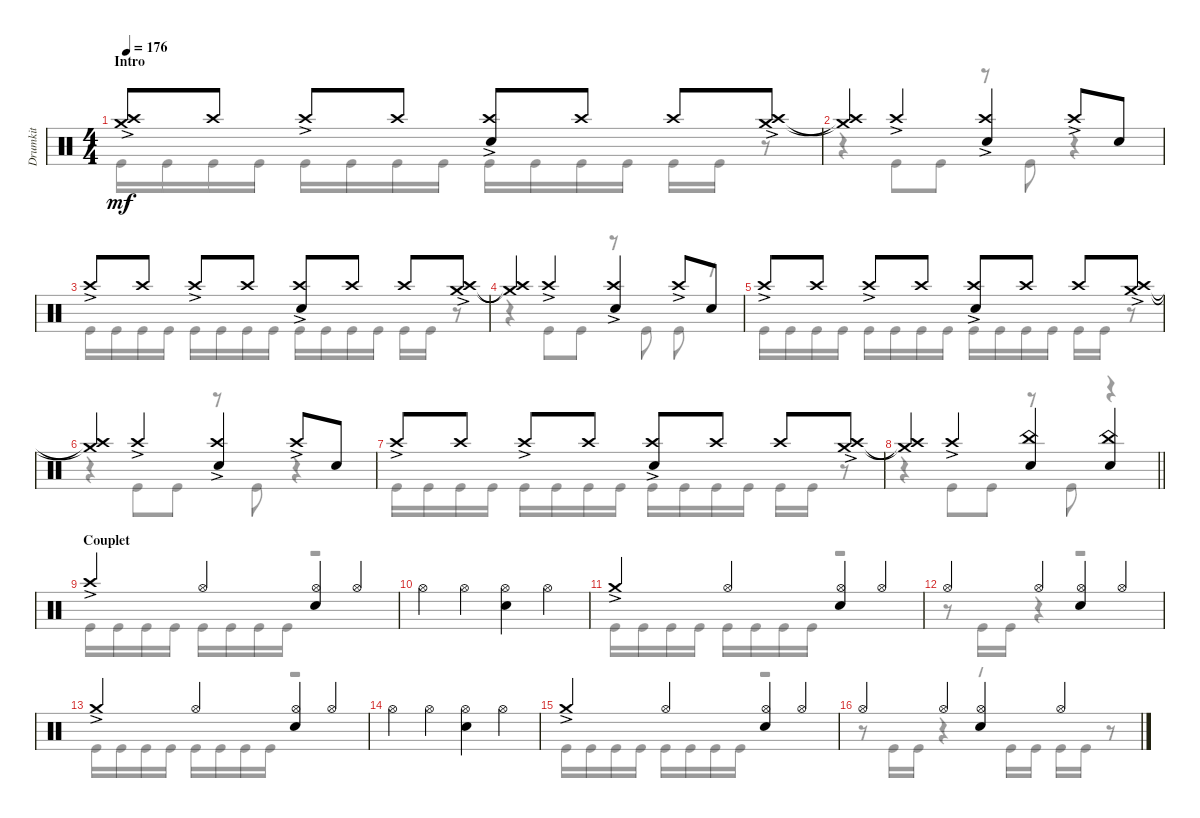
\track ("Drumkit" "Drumkit") {instrument percussion}
\staff {score}
\articulation defaults
\voice
\ts (4 4)
\section ("" "Intro")
\tempo 176
\clef neutral
\ks c
("Crash high (hit)"{ac} "Crash medium (hit)"{ac}).8{dy mf} "Crash high (hit)".8 "Crash high (hit)"{ac}.8 "Crash high (hit)".8 ("Snare (hit) 2" "Crash high (hit)"{ac}).8 "Crash high (hit)".8 "Crash high (hit)".8 ("Crash high (hit)"{ac} "Crash medium (hit)"{ac}).8 |
("Crash medium (hit)"{t} "Crash high (hit)"{t}).4 "Crash high (hit)"{ac}.4 ("Snare (hit) 2" "Crash high (hit)"{ac}).4 "Crash high (hit)"{ac}.8 "Snare (hit) 2".8 |
"Crash high (hit)"{ac}.8 "Crash high (hit)".8 "Crash high (hit)"{ac}.8 "Crash high (hit)".8 ("Snare (hit) 2" "Crash high (hit)"{ac}).8 "Crash high (hit)".8 "Crash high (hit)".8 ("Crash high (hit)"{ac} "Crash medium (hit)"{ac}).8 |
("Crash medium (hit)"{t} "Crash high (hit)"{t}).4 "Crash high (hit)"{ac}.4 ("Snare (hit) 2" "Crash high (hit)"{ac}).4 "Crash high (hit)"{ac}.8 "Snare (hit) 2".8 |
"Crash high (hit)"{ac}.8 "Crash high (hit)".8 "Crash high (hit)"{ac}.8 "Crash high (hit)".8 ("Snare (hit) 2" "Crash high (hit)"{ac}).8 "Crash high (hit)".8 "Crash high (hit)".8 ("Crash high (hit)"{ac} "Crash medium (hit)"{ac}).8 |
("Crash medium (hit)"{t} "Crash high (hit)"{t}).4 "Crash high (hit)"{ac}.4 ("Snare (hit) 2" "Crash high (hit)"{ac}).4 "Crash high (hit)"{ac}.8 "Snare (hit) 2".8 |
"Crash high (hit)"{ac}.8 "Crash high (hit)".8 "Crash high (hit)"{ac}.8 "Crash high (hit)".8 ("Snare (hit) 2" "Crash high (hit)"{ac}).8 "Crash high (hit)".8 "Crash high (hit)".8 ("Crash high (hit)"{ac} "Crash medium (hit)"{ac}).8 |
\barLineRight lightlight
("Crash medium (hit)"{t} "Crash high (hit)"{t}).4 "Crash high (hit)"{ac}.4 ("Snare (hit) 2" "China (hit)").4 ("China (hit)" "Snare (hit) 2").4 |
\section ("" "Couplet")
"Crash high (hit)"{ac}.4 "Hi-Hat (open)".4 ("Hi-Hat (open)" "Snare (hit) 2").4 "Hi-Hat (open)".4 |
"Hi-Hat (open)".4 "Hi-Hat (open)".4 ("Hi-Hat (open)" "Snare (hit) 2").4 "Hi-Hat (open)".4 |
"Crash medium (hit)"{ac}.4 "Hi-Hat (open)".4 ("Hi-Hat (open)" "Snare (hit) 2").4 "Hi-Hat (open)".4 |
"Hi-Hat (open)".4 "Hi-Hat (open)".4 ("Hi-Hat (open)" "Snare (hit) 2").4 "Hi-Hat (open)".4 |
"Crash medium (hit)"{ac}.4 "Hi-Hat (open)".4 ("Hi-Hat (open)" "Snare (hit) 2").4 "Hi-Hat (open)".4 |
"Hi-Hat (open)".4 "Hi-Hat (open)".4 ("Hi-Hat (open)" "Snare (hit) 2").4 "Hi-Hat (open)".4 |
"Crash medium (hit)"{ac}.4 "Hi-Hat (open)".4 ("Hi-Hat (open)" "Snare (hit) 2").4 "Hi-Hat (open)".4 |
"Hi-Hat (open)".4 "Hi-Hat (open)".4 ("Hi-Hat (open)" "Snare (hit) 2").4 "Hi-Hat (open)".4
\voice
\clef neutral
\ottava regular
\simile none
\ks c "Kick (hit)".16{dy mf} "Kick (hit)".16 "Kick (hit)".16 "Kick (hit)".16 "Kick (hit)".16 "Kick (hit)".16 "Kick (hit)".16 "Kick (hit)".16 "Kick (hit)".16 "Kick (hit)".16 "Kick (hit)".16 "Kick (hit)".16 "Kick (hit)".16 "Kick (hit)".16
r.8 |
r.4 "Kick (hit)".8 "Kick (hit)".8 r.8 "Kick (hit)".8 r.4 |
"Kick (hit)".16 "Kick (hit)".16 "Kick (hit)".16 "Kick (hit)".16 "Kick (hit)".16 "Kick (hit)".16 "Kick (hit)".16 "Kick (hit)".16 "Kick (hit)".16 "Kick (hit)".16 "Kick (hit)".16 "Kick (hit)".16 "Kick (hit)".16 "Kick (hit)".16 r.8 |
r.4 "Kick (hit)".8 "Kick (hit)".8 r.8 "Kick (hit)".8 "Kick (hit)".8 r.8 |
"Kick (hit)".16 "Kick (hit)".16 "Kick (hit)".16 "Kick (hit)".16 "Kick (hit)".16 "Kick (hit)".16 "Kick (hit)".16 "Kick (hit)".16 "Kick (hit)".16 "Kick (hit)".16 "Kick (hit)".16 "Kick (hit)".16 "Kick (hit)".16 "Kick (hit)".16 r.8 |
r.4 "Kick (hit)".8 "Kick (hit)".8 r.8 "Kick (hit)".8 r.4 |
"Kick (hit)".16 "Kick (hit)".16 "Kick (hit)".16 "Kick (hit)".16 "Kick (hit)".16 "Kick (hit)".16 "Kick (hit)".16 "Kick (hit)".16 "Kick (hit)".16 "Kick (hit)".16 "Kick (hit)".16 "Kick (hit)".16 "Kick (hit)".16 "Kick (hit)".16 r.8 |
\barLineRight lightlight
r.4 "Kick (hit)".8 "Kick (hit)".8 r.8 "Kick (hit)".8 r.4 |
"Kick (hit)".16 "Kick (hit)".16 "Kick (hit)".16 "Kick (hit)".16 "Kick (hit)".16 "Kick (hit)".16 "Kick (hit)".16 "Kick (hit)".16 r.2 |
|
"Kick (hit)".16 "Kick (hit)".16 "Kick (hit)".16 "Kick (hit)".16 "Kick (hit)".16 "Kick (hit)".16 "Kick (hit)".16 "Kick (hit)".16 r.2 |
r.8 "Kick (hit)".16 "Kick (hit)".16 r.4 r.2 |
"Kick (hit)".16 "Kick (hit)".16 "Kick (hit)".16 "Kick (hit)".16 "Kick (hit)".16 "Kick (hit)".16 "Kick (hit)".16 "Kick (hit)".16 r.2 |
|
"Kick (hit)".16 "Kick (hit)".16 "Kick (hit)".16 "Kick (hit)".16 "Kick (hit)".16 "Kick (hit)".16 "Kick (hit)".16 "Kick (hit)".16 r.2 |
r.8 "Kick (hit)".16 "Kick (hit)".16 r.4 r.8 "Kick (hit)".16 "Kick (hit)".16 "Kick (hit)".16 "Kick (hit)".16 r.8
